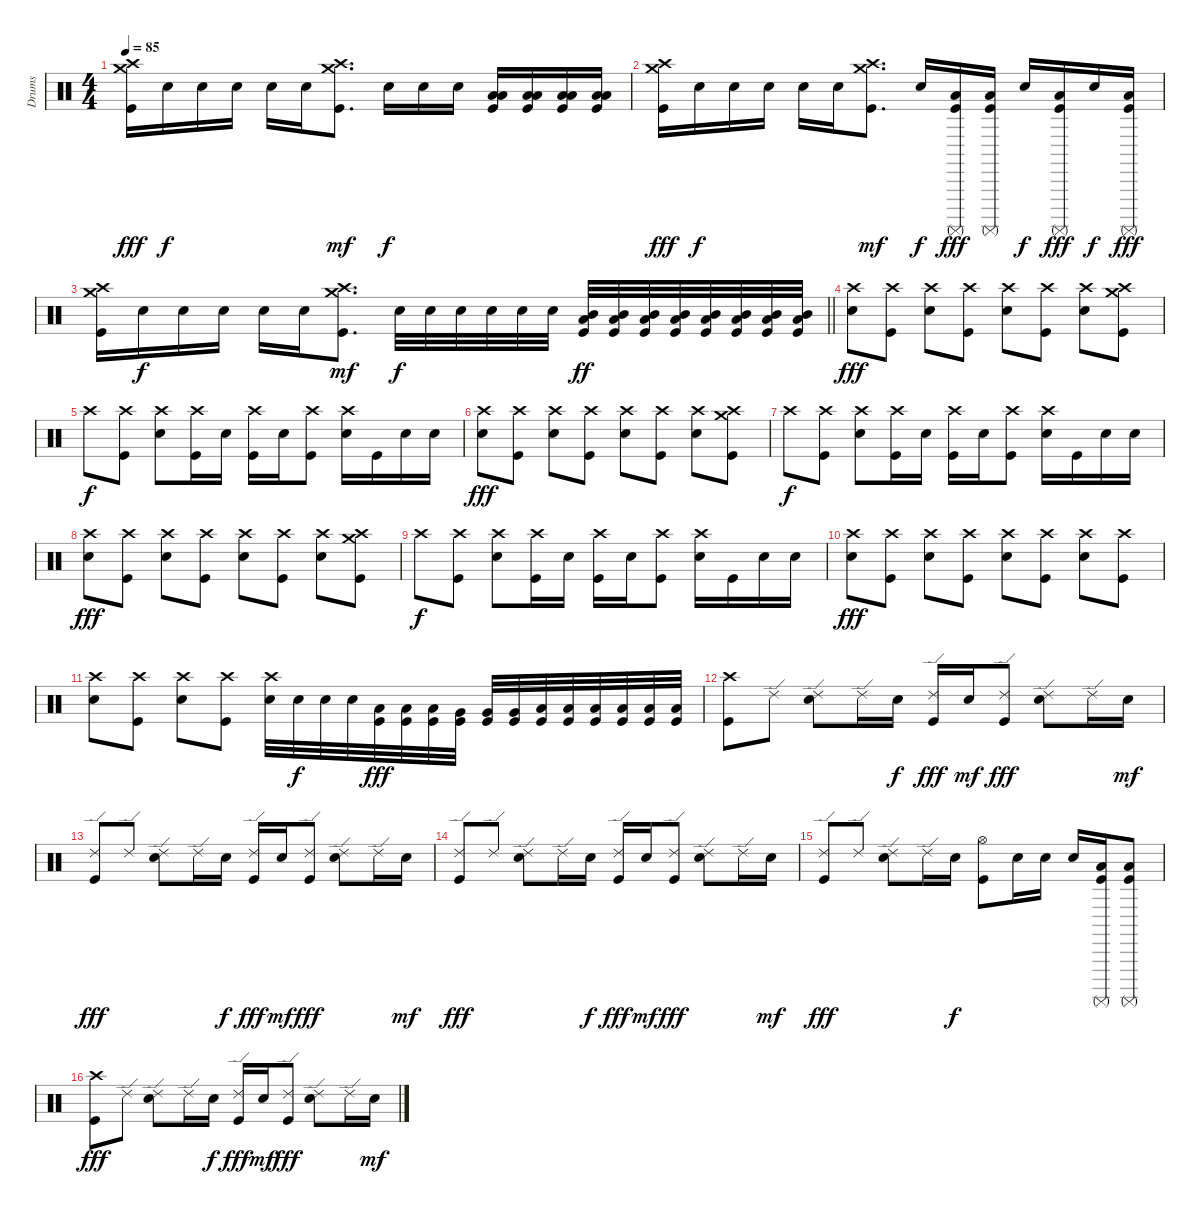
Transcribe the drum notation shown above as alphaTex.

\track ("Drums" "Drums") {instrument percussion}
\staff {score}
\articulation defaults
\ts (4 4)
\tempo 85
\clef neutral
\ks c
("Crash high (hit)" "Crash medium (hit)" "Kick (hit)").16{dy fff} "Snare (hit) 2".16{dy f} "Snare (hit) 2".16 "Snare (hit) 2".16 "Snare (hit) 2".16 "Snare (hit) 2".16 ("Crash high (hit)" "Crash medium (hit)" "Kick (hit)").8{d dy mf} "Snare (hit) 2".16{dy f} "Snare (hit) 2".16 "Snare (hit) 2".16 ("Low Floor Tom (hit)" "Low Tom (hit)" "Kick (hit)").16 ("Low Floor Tom (hit)" "Low Tom (hit)" "Kick (hit)").16 ("Low Floor Tom (hit)" "Low Tom (hit)" "Kick (hit)").16 ("Low Floor Tom (hit)" "Low Tom (hit)" "Kick (hit)").16 |
("Crash high (hit)" "Crash medium (hit)" "Kick (hit)").16{dy fff} "Snare (hit) 2".16{dy f} "Snare (hit) 2".16 "Snare (hit) 2".16 "Snare (hit) 2".16 "Snare (hit) 2".16 ("Crash high (hit)" "Crash medium (hit)" "Kick (hit)").8{d dy mf} "Snare (hit) 2".16{dy f} ("Surdo (mute)" "Low Floor Tom (hit)" "Kick (hit)").16{dy fff} ("Surdo (mute)" "Low Floor Tom (hit)" "Kick (hit)").16 "Snare (hit) 2".16{dy f} ("Surdo (mute)" "Low Floor Tom (hit)" "Kick (hit)").16{dy fff} "Snare (hit) 2".16{dy f} ("Surdo (mute)" "Low Floor Tom (hit)" "Kick (hit)").16{dy fff} |
\barLineRight lightlight
("Crash high (hit)" "Crash medium (hit)" "Kick (hit)").16 "Snare (hit) 2".16{dy f} "Snare (hit) 2".16 "Snare (hit) 2".16 "Snare (hit) 2".16 "Snare (hit) 2".16 ("Crash high (hit)" "Crash medium (hit)" "Kick (hit)").8{d dy mf} "Snare (hit) 2".32{dy f} "Snare (hit) 2".32 "Snare (hit) 2".32 "Snare (hit) 2".32 "Snare (hit) 2".32 "Snare (hit) 2".32 ("Mid Tom (hit)" "Low Tom (hit)" "Kick (hit)").32{dy ff} ("Mid Tom (hit)" "Low Tom (hit)" "Kick (hit)").32 ("Mid Tom (hit)" "Low Tom (hit)" "Kick (hit)").32 ("Mid Tom (hit)" "Low Tom (hit)" "Kick (hit)").32 ("Mid Tom (hit)" "Low Tom (hit)" "Kick (hit)").32 ("Mid Tom (hit)" "Low Tom (hit)" "Kick (hit)").32 ("Mid Tom (hit)" "Low Tom (hit)" "Kick (hit)").32 ("Mid Tom (hit)" "Low Tom (hit)" "Kick (hit)").32 |
("Crash high (hit)" "Snare (hit) 2").8{dy fff} ("Crash high (hit)" "Kick (hit)").8 ("Crash high (hit)" "Snare (hit) 2").8 ("Crash high (hit)" "Kick (hit)").8 ("Crash high (hit)" "Snare (hit) 2").8 ("Crash high (hit)" "Kick (hit)").8 ("Crash high (hit)" "Snare (hit) 2").8 ("Crash high (hit)" "Crash medium (hit)" "Kick (hit)").8 |
"Crash high (hit)".8{dy f} ("Crash high (hit)" "Kick (hit)").8 ("Crash high (hit)" "Snare (hit) 2").8 ("Crash high (hit)" "Kick (hit)").16 "Snare (hit) 2".16 ("Crash high (hit)" "Kick (hit)").16 "Snare (hit) 2".16 ("Crash high (hit)" "Kick (hit)").8 ("Crash high (hit)" "Snare (hit) 2").16 "Kick (hit)".16 "Snare (hit) 2".16 "Snare (hit) 2".16 |
("Crash high (hit)" "Snare (hit) 2").8{dy fff} ("Crash high (hit)" "Kick (hit)").8 ("Crash high (hit)" "Snare (hit) 2").8 ("Crash high (hit)" "Kick (hit)").8 ("Crash high (hit)" "Snare (hit) 2").8 ("Crash high (hit)" "Kick (hit)").8 ("Crash high (hit)" "Snare (hit) 2").8 ("Crash high (hit)" "Crash medium (hit)" "Kick (hit)").8 |
"Crash high (hit)".8{dy f} ("Crash high (hit)" "Kick (hit)").8 ("Crash high (hit)" "Snare (hit) 2").8 ("Crash high (hit)" "Kick (hit)").16 "Snare (hit) 2".16 ("Crash high (hit)" "Kick (hit)").16 "Snare (hit) 2".16 ("Crash high (hit)" "Kick (hit)").8 ("Crash high (hit)" "Snare (hit) 2").16 "Kick (hit)".16 "Snare (hit) 2".16 "Snare (hit) 2".16 |
("Crash high (hit)" "Snare (hit) 2").8{dy fff} ("Crash high (hit)" "Kick (hit)").8 ("Crash high (hit)" "Snare (hit) 2").8 ("Crash high (hit)" "Kick (hit)").8 ("Crash high (hit)" "Snare (hit) 2").8 ("Crash high (hit)" "Kick (hit)").8 ("Crash high (hit)" "Snare (hit) 2").8 ("Crash high (hit)" "Crash medium (hit)" "Kick (hit)").8 |
"Crash high (hit)".8{dy f} ("Crash high (hit)" "Kick (hit)").8 ("Crash high (hit)" "Snare (hit) 2").8 ("Crash high (hit)" "Kick (hit)").16 "Snare (hit) 2".16 ("Crash high (hit)" "Kick (hit)").16 "Snare (hit) 2".16 ("Crash high (hit)" "Kick (hit)").8 ("Crash high (hit)" "Snare (hit) 2").16 "Kick (hit)".16 "Snare (hit) 2".16 "Snare (hit) 2".16 |
("Crash high (hit)" "Snare (hit) 2").8{dy fff} ("Crash high (hit)" "Kick (hit)").8 ("Crash high (hit)" "Snare (hit) 2").8 ("Crash high (hit)" "Kick (hit)").8 ("Crash high (hit)" "Snare (hit) 2").8 ("Crash high (hit)" "Kick (hit)").8 ("Crash high (hit)" "Snare (hit) 2").8 ("Crash high (hit)" "Kick (hit)").8 |
("Crash high (hit)" "Snare (hit) 2").8 ("Crash high (hit)" "Kick (hit)").8 ("Crash high (hit)" "Snare (hit) 2").8 ("Crash high (hit)" "Kick (hit)").8 ("Crash high (hit)" "Snare (hit) 2").32 "Snare (hit) 2".32{dy f} "Snare (hit) 2".32 "Snare (hit) 2".32 ("Low Tom (hit)" "Kick (hit)").32{dy fff} ("Low Tom (hit)" "Kick (hit)").32 ("Low Tom (hit)" "Kick (hit)").32 ("Very Low Tom (hit)" "Kick (hit)").32 ("Very Low Tom (hit)" "Kick (hit)").32 ("Very Low Tom (hit)" "Kick (hit)").32 ("Low Floor Tom (hit)" "Kick (hit)").32 ("Low Floor Tom (hit)" "Kick (hit)").32 ("Low Floor Tom (hit)" "Kick (hit)").32 ("Low Floor Tom (hit)" "Kick (hit)").32 ("Low Floor Tom (hit)" "Kick (hit)").32 ("Low Floor Tom (hit)" "Kick (hit)").32 |
("Crash high (hit)" "Kick (hit)").8 "Ride (edge) 2".8 ("Ride (edge) 2" "Snare (hit) 2").8 "Ride (edge) 2".16 "Snare (hit) 2".16{dy f} ("Ride (edge) 2" "Kick (hit)").16{dy fff} "Snare (hit) 2".16{dy mf} ("Ride (edge) 2" "Kick (hit)").8{dy fff} ("Ride (edge) 2" "Snare (hit) 2").8 "Ride (edge) 2".16 "Snare (hit) 2".16{dy mf} |
("Ride (edge) 2" "Kick (hit)").8{dy fff} "Ride (edge) 2".8 ("Ride (edge) 2" "Snare (hit) 2").8 "Ride (edge) 2".16 "Snare (hit) 2".16{dy f} ("Ride (edge) 2" "Kick (hit)").16{dy fff} "Snare (hit) 2".16{dy mf} ("Ride (edge) 2" "Kick (hit)").8{dy fff} ("Ride (edge) 2" "Snare (hit) 2").8 "Ride (edge) 2".16 "Snare (hit) 2".16{dy mf} |
("Ride (edge) 2" "Kick (hit)").8{dy fff} "Ride (edge) 2".8 ("Ride (edge) 2" "Snare (hit) 2").8 "Ride (edge) 2".16 "Snare (hit) 2".16{dy f} ("Ride (edge) 2" "Kick (hit)").16{dy fff} "Snare (hit) 2".16{dy mf} ("Ride (edge) 2" "Kick (hit)").8{dy fff} ("Ride (edge) 2" "Snare (hit) 2").8 "Ride (edge) 2".16 "Snare (hit) 2".16{dy mf} |
("Ride (edge) 2" "Kick (hit)").8{dy fff} "Ride (edge) 2".8 ("Ride (edge) 2" "Snare (hit) 2").8 "Ride (edge) 2".16 "Snare (hit) 2".16{dy f} ("Hi-Hat (open)" "Kick (hit)").8 "Snare (hit) 2".16 "Snare (hit) 2".16 "Snare (hit) 2".16 ("Surdo (mute)" "Low Floor Tom (hit)" "Kick (hit)").16 ("Surdo (mute)" "Low Floor Tom (hit)" "Kick (hit)").8 |
("Crash high (hit)" "Kick (hit)").8{dy fff} "Ride (edge) 2".8 ("Ride (edge) 2" "Snare (hit) 2").8 "Ride (edge) 2".16 "Snare (hit) 2".16{dy f} ("Ride (edge) 2" "Kick (hit)").16{dy fff} "Snare (hit) 2".16{dy mf} ("Ride (edge) 2" "Kick (hit)").8{dy fff} ("Ride (edge) 2" "Snare (hit) 2").8 "Ride (edge) 2".16 "Snare (hit) 2".16{dy mf}
